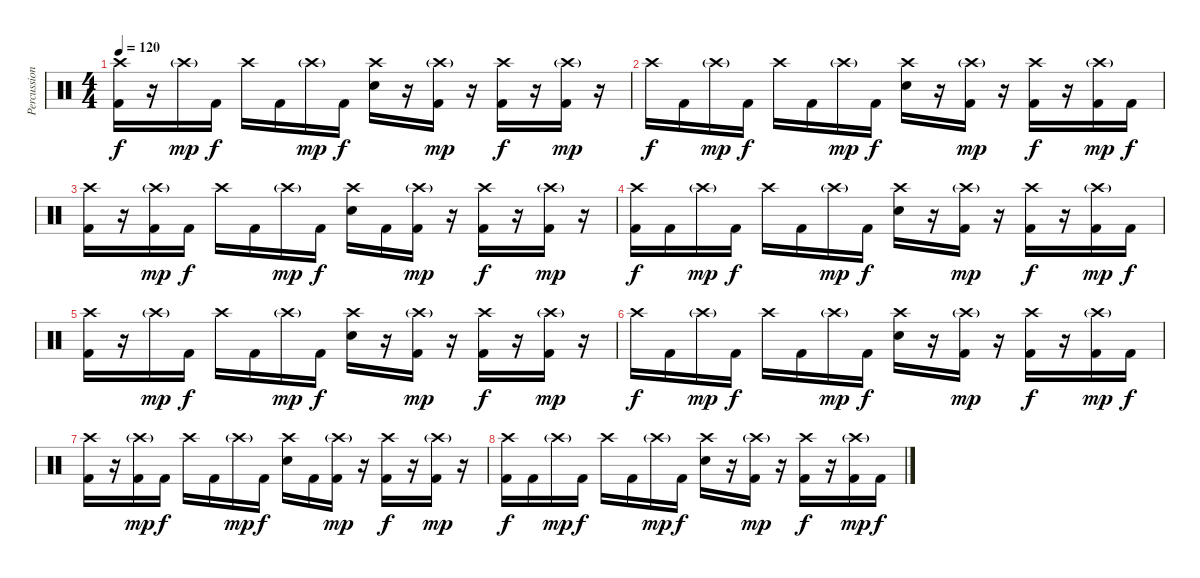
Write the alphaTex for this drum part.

\track ("Percussion" "Percussion") {instrument percussion}
\staff {score}
\articulation defaults
\ts (4 4)
\tempo 120
\clef neutral
\ks c
("Crash high (hit)" "Kick (hit) 2").16{dy f} r.16 "Crash high (hit)"{g}.16{dy mp} "Kick (hit) 2".16{dy f} "Crash high (hit)".16 "Kick (hit) 2".16 "Crash high (hit)"{g}.16{dy mp} "Kick (hit) 2".16{dy f} ("Crash high (hit)" "Electric Snare (hit)").16 r.16 ("Crash high (hit)"{g} "Kick (hit) 2").16{dy mp} r.16 ("Crash high (hit)" "Kick (hit) 2").16{dy f} r.16 ("Crash high (hit)"{g} "Kick (hit) 2").16{dy mp} r.16 |
"Crash high (hit)".16{dy f} "Kick (hit) 2".16 "Crash high (hit)"{g}.16{dy mp} "Kick (hit) 2".16{dy f} "Crash high (hit)".16 "Kick (hit) 2".16 "Crash high (hit)"{g}.16{dy mp} "Kick (hit) 2".16{dy f} ("Crash high (hit)" "Electric Snare (hit)").16 r.16 ("Crash high (hit)"{g} "Kick (hit) 2").16{dy mp} r.16 ("Crash high (hit)" "Kick (hit) 2").16{dy f} r.16 ("Crash high (hit)"{g} "Kick (hit) 2").16{dy mp} "Kick (hit) 2".16{dy f} |
("Crash high (hit)" "Kick (hit) 2").16 r.16 ("Crash high (hit)"{g} "Kick (hit) 2").16{dy mp} "Kick (hit) 2".16{dy f} "Crash high (hit)".16 "Kick (hit) 2".16 "Crash high (hit)"{g}.16{dy mp} "Kick (hit) 2".16{dy f} ("Crash high (hit)" "Electric Snare (hit)").16 "Kick (hit) 2".16 ("Crash high (hit)"{g} "Kick (hit) 2").16{dy mp} r.16 ("Crash high (hit)" "Kick (hit) 2").16{dy f} r.16 ("Crash high (hit)"{g} "Kick (hit) 2").16{dy mp} r.16 |
("Crash high (hit)" "Kick (hit) 2").16{dy f} "Kick (hit) 2".16 "Crash high (hit)"{g}.16{dy mp} "Kick (hit) 2".16{dy f} "Crash high (hit)".16 "Kick (hit) 2".16 "Crash high (hit)"{g}.16{dy mp} "Kick (hit) 2".16{dy f} ("Crash high (hit)" "Electric Snare (hit)").16 r.16 ("Crash high (hit)"{g} "Kick (hit) 2").16{dy mp} r.16 ("Crash high (hit)" "Kick (hit) 2").16{dy f} r.16 ("Crash high (hit)"{g} "Kick (hit) 2").16{dy mp} "Kick (hit) 2".16{dy f} |
("Crash high (hit)" "Kick (hit) 2").16 r.16 "Crash high (hit)"{g}.16{dy mp} "Kick (hit) 2".16{dy f} "Crash high (hit)".16 "Kick (hit) 2".16 "Crash high (hit)"{g}.16{dy mp} "Kick (hit) 2".16{dy f} ("Crash high (hit)" "Electric Snare (hit)").16 r.16 ("Crash high (hit)"{g} "Kick (hit) 2").16{dy mp} r.16 ("Crash high (hit)" "Kick (hit) 2").16{dy f} r.16 ("Crash high (hit)"{g} "Kick (hit) 2").16{dy mp} r.16 |
"Crash high (hit)".16{dy f} "Kick (hit) 2".16 "Crash high (hit)"{g}.16{dy mp} "Kick (hit) 2".16{dy f} "Crash high (hit)".16 "Kick (hit) 2".16 "Crash high (hit)"{g}.16{dy mp} "Kick (hit) 2".16{dy f} ("Crash high (hit)" "Electric Snare (hit)").16 r.16 ("Crash high (hit)"{g} "Kick (hit) 2").16{dy mp} r.16 ("Crash high (hit)" "Kick (hit) 2").16{dy f} r.16 ("Crash high (hit)"{g} "Kick (hit) 2").16{dy mp} "Kick (hit) 2".16{dy f} |
("Crash high (hit)" "Kick (hit) 2").16 r.16 ("Crash high (hit)"{g} "Kick (hit) 2").16{dy mp} "Kick (hit) 2".16{dy f} "Crash high (hit)".16 "Kick (hit) 2".16 "Crash high (hit)"{g}.16{dy mp} "Kick (hit) 2".16{dy f} ("Crash high (hit)" "Electric Snare (hit)").16 "Kick (hit) 2".16 ("Crash high (hit)"{g} "Kick (hit) 2").16{dy mp} r.16 ("Crash high (hit)" "Kick (hit) 2").16{dy f} r.16 ("Crash high (hit)"{g} "Kick (hit) 2").16{dy mp} r.16 |
("Crash high (hit)" "Kick (hit) 2").16{dy f} "Kick (hit) 2".16 "Crash high (hit)"{g}.16{dy mp} "Kick (hit) 2".16{dy f} "Crash high (hit)".16 "Kick (hit) 2".16 "Crash high (hit)"{g}.16{dy mp} "Kick (hit) 2".16{dy f} ("Crash high (hit)" "Electric Snare (hit)").16 r.16 ("Crash high (hit)"{g} "Kick (hit) 2").16{dy mp} r.16 ("Crash high (hit)" "Kick (hit) 2").16{dy f} r.16 ("Crash high (hit)"{g} "Kick (hit) 2").16{dy mp} "Kick (hit) 2".16{dy f}
